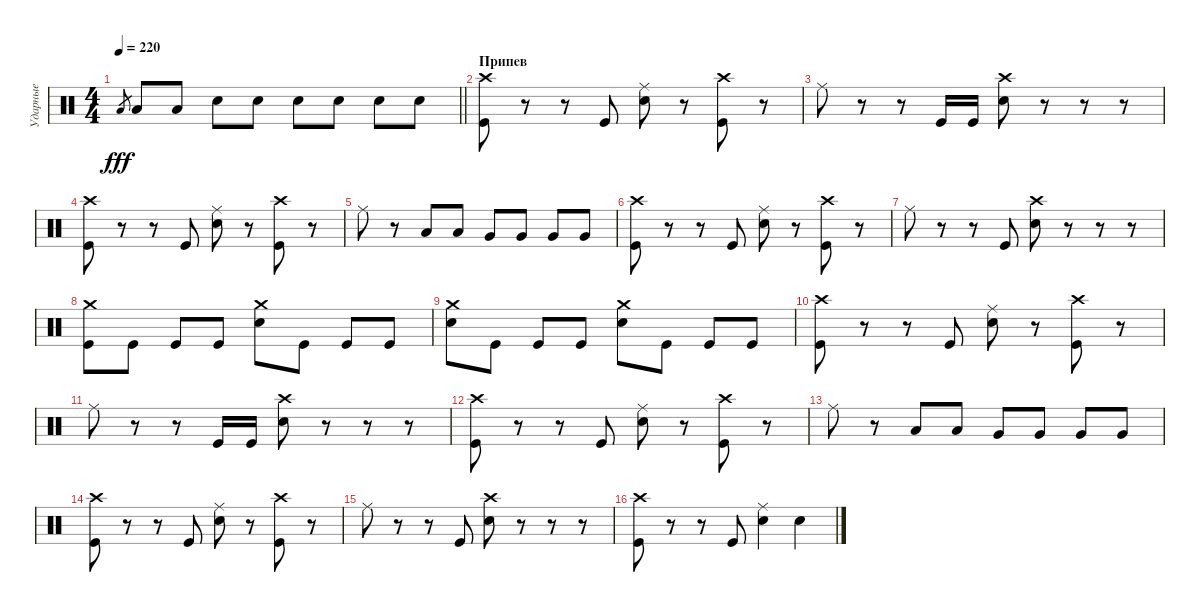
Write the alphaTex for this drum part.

\track ("Ударные" "Ударные") {instrument percussion}
\staff {score}
\articulation defaults
\ts (4 4)
\tempo 220
\clef neutral
\barLineRight lightlight
\ks c "Low Floor Tom (hit)".8{gr dy fff} "Low Floor Tom (hit)".8 "Low Floor Tom (hit)".8 "Snare (hit) 2".8 "Snare (hit) 2".8 "Snare (hit) 2".8 "Snare (hit) 2".8 "Snare (hit) 2".8 "Snare (hit) 2".8
|
\section ("" "Припев")
("Crash high (hit)" "Kick (hit)").8 r.8 r.8 "Kick (hit)".8 ("Ride (middle)" "Snare (hit) 2").8 r.8 ("Crash high (hit)" "Kick (hit)").8 r.8 |
"Ride (middle)".8 r.8 r.8 "Kick (hit)".16 "Kick (hit)".16 ("Crash high (hit)" "Snare (hit) 2").8 r.8 r.8 r.8 |
("Crash high (hit)" "Kick (hit)").8 r.8 r.8 "Kick (hit)".8 ("Ride (middle)" "Snare (hit) 2").8 r.8 ("Crash high (hit)" "Kick (hit)").8 r.8 |
"Ride (middle)".8 r.8 "Low Floor Tom (hit)".8 "Low Floor Tom (hit)".8 "Very Low Tom (hit)".8 "Very Low Tom (hit)".8 "Very Low Tom (hit)".8 "Very Low Tom (hit)".8 |
("Crash high (hit)" "Kick (hit)").8 r.8 r.8 "Kick (hit)".8 ("Ride (middle)" "Snare (hit) 2").8 r.8 ("Crash high (hit)" "Kick (hit)").8 r.8 |
"Ride (middle)".8 r.8 r.8 "Kick (hit)".8 ("Crash high (hit)" "Snare (hit) 2").8 r.8 r.8 r.8 |
("Crash medium (hit)" "Kick (hit)").8 "Kick (hit)".8 "Kick (hit)".8 "Kick (hit)".8 ("Crash medium (hit)" "Snare (hit) 2").8 "Kick (hit)".8 "Kick (hit)".8 "Kick (hit)".8 |
("Crash medium (hit)" "Snare (hit) 2").8 "Kick (hit)".8 "Kick (hit)".8 "Kick (hit)".8 ("Crash medium (hit)" "Snare (hit) 2").8 "Kick (hit)".8 "Kick (hit)".8 "Kick (hit)".8 |
("Crash high (hit)" "Kick (hit)").8 r.8 r.8 "Kick (hit)".8 ("Ride (middle)" "Snare (hit) 2").8 r.8 ("Crash high (hit)" "Kick (hit)").8 r.8 |
"Ride (middle)".8 r.8 r.8 "Kick (hit)".16 "Kick (hit)".16 ("Crash high (hit)" "Snare (hit) 2").8 r.8 r.8 r.8 |
("Crash high (hit)" "Kick (hit)").8 r.8 r.8 "Kick (hit)".8 ("Ride (middle)" "Snare (hit) 2").8 r.8 ("Crash high (hit)" "Kick (hit)").8 r.8 |
"Ride (middle)".8 r.8 "Low Floor Tom (hit)".8 "Low Floor Tom (hit)".8 "Very Low Tom (hit)".8 "Very Low Tom (hit)".8 "Very Low Tom (hit)".8 "Very Low Tom (hit)".8 |
("Crash high (hit)" "Kick (hit)").8 r.8 r.8 "Kick (hit)".8 ("Ride (middle)" "Snare (hit) 2").8 r.8 ("Crash high (hit)" "Kick (hit)").8 r.8 |
"Ride (middle)".8 r.8 r.8 "Kick (hit)".8 ("Crash high (hit)" "Snare (hit) 2").8 r.8 r.8 r.8 |
("Crash high (hit)" "Kick (hit)").8 r.8 r.8 "Kick (hit)".8 ("Ride (middle)" "Snare (hit) 2").4 "Snare (hit) 2".4
